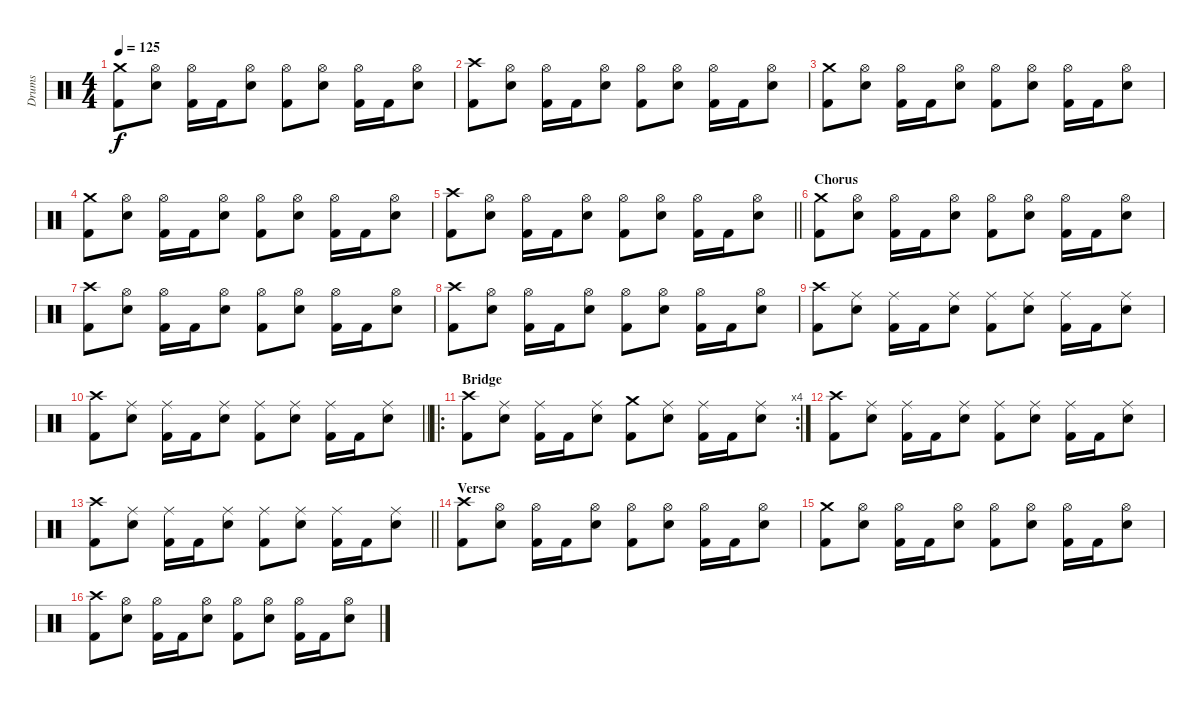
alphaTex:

\track ("Drums" "Drums") {instrument percussion}
\staff {score}
\articulation defaults
\ts (4 4)
\tempo 125
\clef neutral
\ks c
("Crash medium (hit)" "Kick (hit) 2").8{dy f} ("Hi-Hat (open)" "Electric Snare (hit)").8 ("Hi-Hat (open)" "Kick (hit) 2").16 "Kick (hit) 2".16 ("Hi-Hat (open)" "Electric Snare (hit)").8 ("Hi-Hat (open)" "Kick (hit) 2").8 ("Hi-Hat (open)" "Electric Snare (hit)").8 ("Hi-Hat (open)" "Kick (hit) 2").16 "Kick (hit) 2".16 ("Hi-Hat (open)" "Electric Snare (hit)").8 |
("Crash high (hit)" "Kick (hit) 2").8 ("Hi-Hat (open)" "Electric Snare (hit)").8 ("Hi-Hat (open)" "Kick (hit) 2").16 "Kick (hit) 2".16 ("Hi-Hat (open)" "Electric Snare (hit)").8 ("Hi-Hat (open)" "Kick (hit) 2").8 ("Hi-Hat (open)" "Electric Snare (hit)").8 ("Hi-Hat (open)" "Kick (hit) 2").16 "Kick (hit) 2".16 ("Hi-Hat (open)" "Electric Snare (hit)").8 |
("Crash medium (hit)" "Kick (hit) 2").8 ("Hi-Hat (open)" "Electric Snare (hit)").8 ("Hi-Hat (open)" "Kick (hit) 2").16 "Kick (hit) 2".16 ("Hi-Hat (open)" "Electric Snare (hit)").8 ("Hi-Hat (open)" "Kick (hit) 2").8 ("Hi-Hat (open)" "Electric Snare (hit)").8 ("Hi-Hat (open)" "Kick (hit) 2").16 "Kick (hit) 2".16 ("Hi-Hat (open)" "Electric Snare (hit)").8 |
("Crash medium (hit)" "Kick (hit) 2").8 ("Hi-Hat (open)" "Electric Snare (hit)").8 ("Hi-Hat (open)" "Kick (hit) 2").16 "Kick (hit) 2".16 ("Hi-Hat (open)" "Electric Snare (hit)").8 ("Hi-Hat (open)" "Kick (hit) 2").8 ("Hi-Hat (open)" "Electric Snare (hit)").8 ("Hi-Hat (open)" "Kick (hit) 2").16 "Kick (hit) 2".16 ("Hi-Hat (open)" "Electric Snare (hit)").8 |
\barLineRight lightlight
("Crash high (hit)" "Kick (hit) 2").8 ("Hi-Hat (open)" "Electric Snare (hit)").8 ("Hi-Hat (open)" "Kick (hit) 2").16 "Kick (hit) 2".16 ("Hi-Hat (open)" "Electric Snare (hit)").8 ("Hi-Hat (open)" "Kick (hit) 2").8 ("Hi-Hat (open)" "Electric Snare (hit)").8 ("Hi-Hat (open)" "Kick (hit) 2").16 "Kick (hit) 2".16 ("Hi-Hat (open)" "Electric Snare (hit)").8 |
\section ("" "Chorus")
("Crash medium (hit)" "Kick (hit) 2").8 ("Hi-Hat (open)" "Electric Snare (hit)").8 ("Hi-Hat (open)" "Kick (hit) 2").16 "Kick (hit) 2".16 ("Hi-Hat (open)" "Electric Snare (hit)").8 ("Hi-Hat (open)" "Kick (hit) 2").8 ("Hi-Hat (open)" "Electric Snare (hit)").8 ("Hi-Hat (open)" "Kick (hit) 2").16 "Kick (hit) 2".16 ("Hi-Hat (open)" "Electric Snare (hit)").8 |
("Crash high (hit)" "Kick (hit) 2").8 ("Hi-Hat (open)" "Electric Snare (hit)").8 ("Hi-Hat (open)" "Kick (hit) 2").16 "Kick (hit) 2".16 ("Hi-Hat (open)" "Electric Snare (hit)").8 ("Hi-Hat (open)" "Kick (hit) 2").8 ("Hi-Hat (open)" "Electric Snare (hit)").8 ("Hi-Hat (open)" "Kick (hit) 2").16 "Kick (hit) 2".16 ("Hi-Hat (open)" "Electric Snare (hit)").8 |
("Crash high (hit)" "Kick (hit) 2").8 ("Hi-Hat (open)" "Electric Snare (hit)").8 ("Hi-Hat (open)" "Kick (hit) 2").16 "Kick (hit) 2".16 ("Hi-Hat (open)" "Electric Snare (hit)").8 ("Hi-Hat (open)" "Kick (hit) 2").8 ("Hi-Hat (open)" "Electric Snare (hit)").8 ("Hi-Hat (open)" "Kick (hit) 2").16 "Kick (hit) 2".16 ("Hi-Hat (open)" "Electric Snare (hit)").8 |
("Crash high (hit)" "Kick (hit) 2").8 ("Ride (middle)" "Electric Snare (hit)").8 ("Ride (middle)" "Kick (hit) 2").16 "Kick (hit) 2".16 ("Ride (middle)" "Electric Snare (hit)").8 ("Ride (middle)" "Kick (hit) 2").8 ("Ride (middle)" "Electric Snare (hit)").8 ("Ride (middle)" "Kick (hit) 2").16 "Kick (hit) 2".16 ("Ride (middle)" "Electric Snare (hit)").8 |
\barLineRight lightlight
("Crash high (hit)" "Kick (hit) 2").8 ("Ride (middle)" "Electric Snare (hit)").8 ("Ride (middle)" "Kick (hit) 2").16 "Kick (hit) 2".16 ("Ride (middle)" "Electric Snare (hit)").8 ("Ride (middle)" "Kick (hit) 2").8 ("Ride (middle)" "Electric Snare (hit)").8 ("Ride (middle)" "Kick (hit) 2").16 "Kick (hit) 2".16 ("Ride (middle)" "Electric Snare (hit)").8 |
\ro
\rc 4
\section ("" "Bridge")
("Crash high (hit)" "Kick (hit) 2").8 ("Ride (middle)" "Electric Snare (hit)").8 ("Ride (middle)" "Kick (hit) 2").16 "Kick (hit) 2".16 ("Ride (middle)" "Electric Snare (hit)").8 ("Crash medium (hit)" "Kick (hit) 2").8 ("Ride (middle)" "Electric Snare (hit)").8 ("Ride (middle)" "Kick (hit) 2").16 "Kick (hit) 2".16 ("Ride (middle)" "Electric Snare (hit)").8 |
("Crash high (hit)" "Kick (hit) 2").8 ("Ride (middle)" "Electric Snare (hit)").8 ("Ride (middle)" "Kick (hit) 2").16 "Kick (hit) 2".16 ("Ride (middle)" "Electric Snare (hit)").8 ("Ride (middle)" "Kick (hit) 2").8 ("Ride (middle)" "Electric Snare (hit)").8 ("Ride (middle)" "Kick (hit) 2").16 "Kick (hit) 2".16 ("Ride (middle)" "Electric Snare (hit)").8 |
\barLineRight lightlight
("Crash high (hit)" "Kick (hit) 2").8 ("Ride (middle)" "Electric Snare (hit)").8 ("Ride (middle)" "Kick (hit) 2").16 "Kick (hit) 2".16 ("Ride (middle)" "Electric Snare (hit)").8 ("Ride (middle)" "Kick (hit) 2").8 ("Ride (middle)" "Electric Snare (hit)").8 ("Ride (middle)" "Kick (hit) 2").16 "Kick (hit) 2".16 ("Ride (middle)" "Electric Snare (hit)").8 |
\section ("" "Verse")
("Crash high (hit)" "Kick (hit) 2").8 ("Hi-Hat (open)" "Electric Snare (hit)").8 ("Hi-Hat (open)" "Kick (hit) 2").16 "Kick (hit) 2".16 ("Hi-Hat (open)" "Electric Snare (hit)").8 ("Hi-Hat (open)" "Kick (hit) 2").8 ("Hi-Hat (open)" "Electric Snare (hit)").8 ("Hi-Hat (open)" "Kick (hit) 2").16 "Kick (hit) 2".16 ("Hi-Hat (open)" "Electric Snare (hit)").8 |
("Crash medium (hit)" "Kick (hit) 2").8 ("Hi-Hat (open)" "Electric Snare (hit)").8 ("Hi-Hat (open)" "Kick (hit) 2").16 "Kick (hit) 2".16 ("Hi-Hat (open)" "Electric Snare (hit)").8 ("Hi-Hat (open)" "Kick (hit) 2").8 ("Hi-Hat (open)" "Electric Snare (hit)").8 ("Hi-Hat (open)" "Kick (hit) 2").16 "Kick (hit) 2".16 ("Hi-Hat (open)" "Electric Snare (hit)").8 |
("Crash high (hit)" "Kick (hit) 2").8 ("Hi-Hat (open)" "Electric Snare (hit)").8 ("Hi-Hat (open)" "Kick (hit) 2").16 "Kick (hit) 2".16 ("Hi-Hat (open)" "Electric Snare (hit)").8 ("Hi-Hat (open)" "Kick (hit) 2").8 ("Hi-Hat (open)" "Electric Snare (hit)").8 ("Hi-Hat (open)" "Kick (hit) 2").16 "Kick (hit) 2".16 ("Hi-Hat (open)" "Electric Snare (hit)").8
